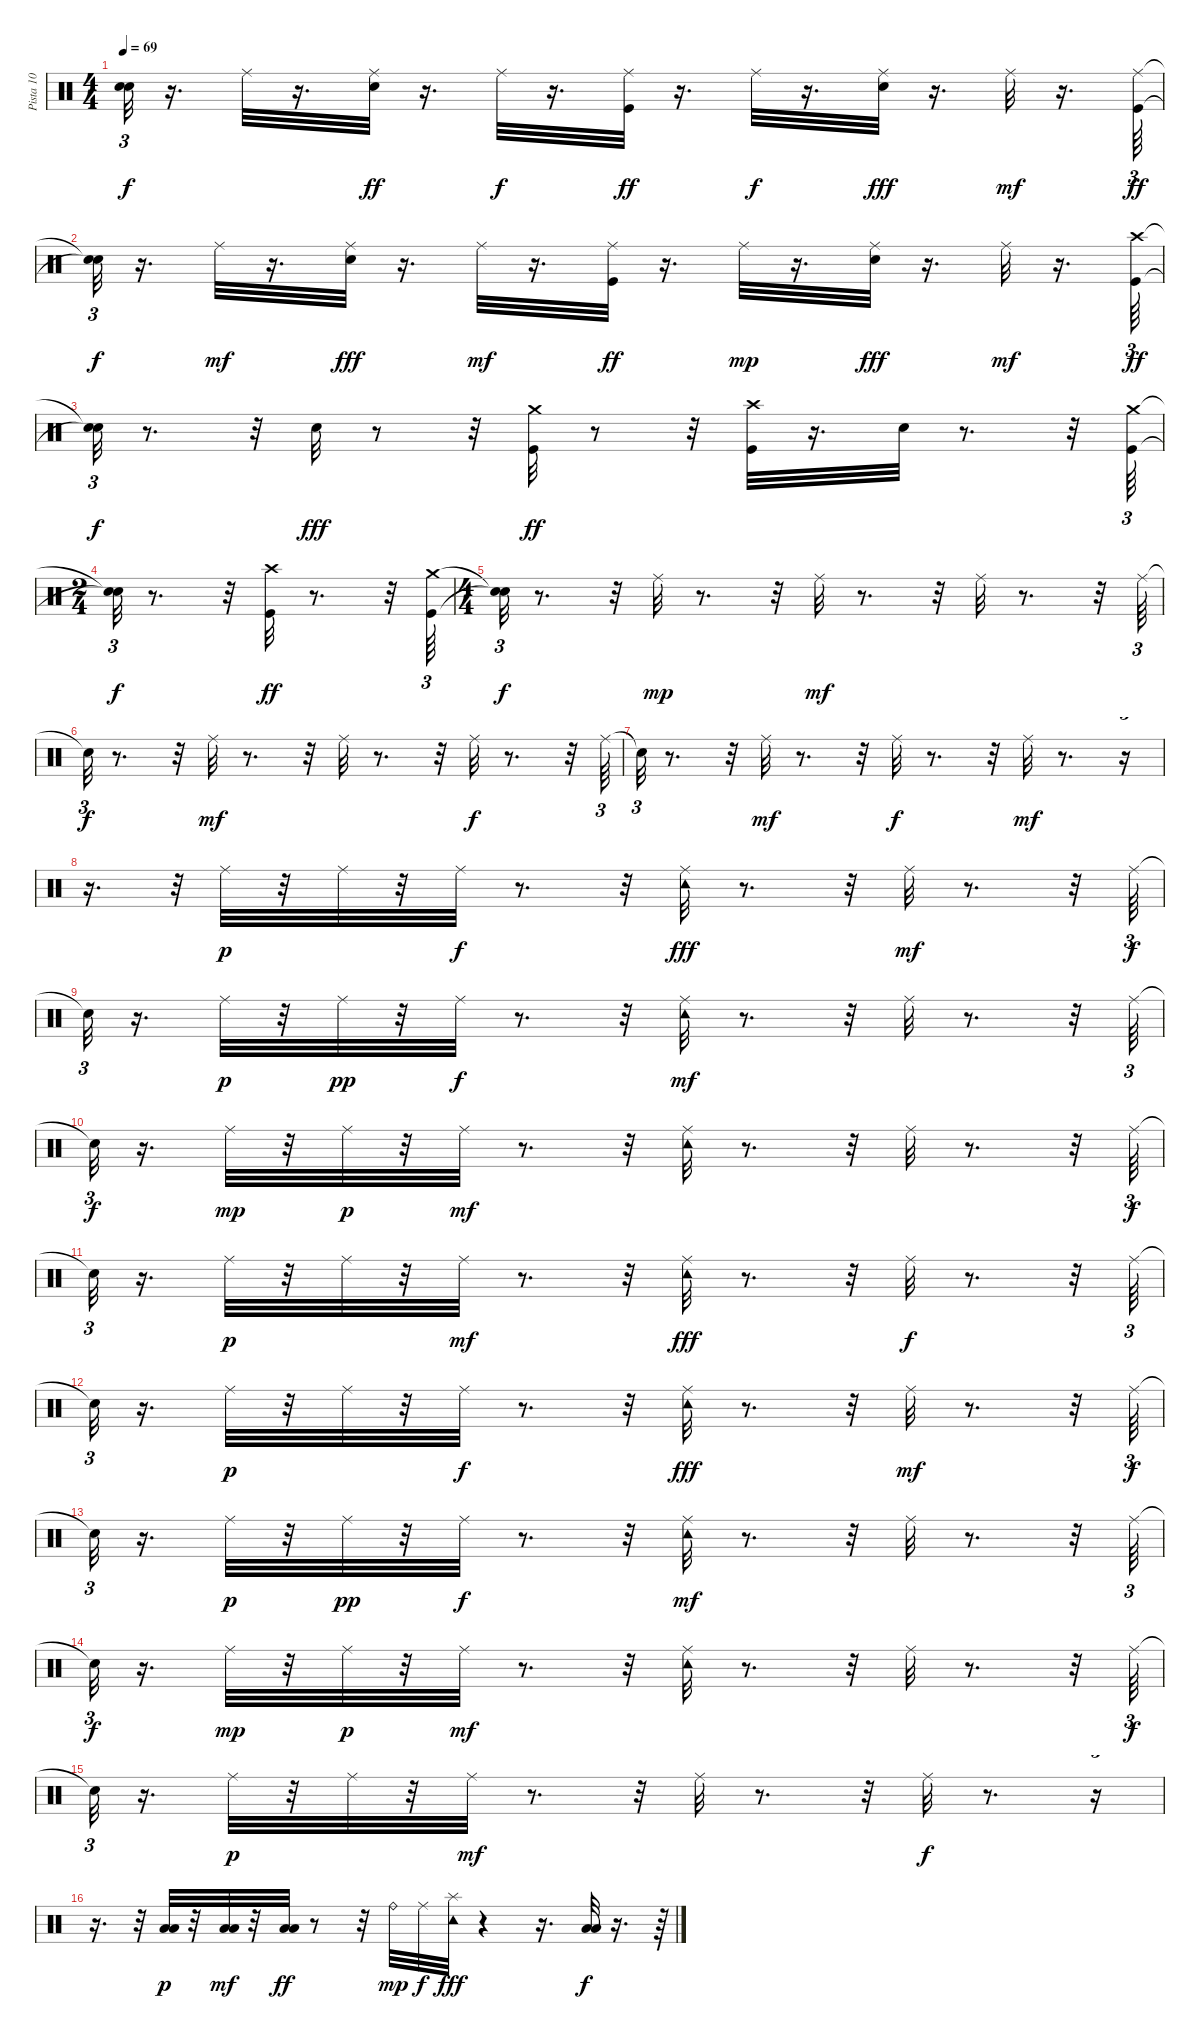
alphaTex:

\track ("Pista 10" "Pista 10") {instrument percussion}
\staff {score}
\articulation defaults
\ts (4 4)
\tempo 69
\clef neutral
\ks c
("Snare (hit)"{t} "Snare (hit)"{t}).32{tu (3 2) dy f} r.16{d} "Ride (middle)".32 r.16{d} ("Snare (hit) 2" "Ride (middle)").32{dy ff} r.16{d} "Ride (middle)".32{dy f} r.16{d} ("Ride (middle)" "Kick (hit)").32{dy ff} r.16{d} "Ride (middle)".32{dy f} r.16{d} ("Ride (middle)" "Snare (hit) 2").32{dy fff} r.16{d} "Ride (middle)".32{dy mf} r.16{d} ("Ride (middle)" "Kick (hit)").64{tu (3 2) dy ff} |
("Snare (hit)"{t} "Snare (hit)"{t}).32{tu (3 2) dy f} r.16{d} "Ride (middle)".32{dy mf} r.16{d} ("Ride (middle)" "Snare (hit) 2").32{dy fff} r.16{d} "Ride (middle)".32{dy mf} r.16{d} ("Ride (middle)" "Kick (hit)").32{dy ff} r.16{d} "Ride (middle)".32{dy mp} r.16{d} ("Ride (middle)" "Snare (hit) 2").32{dy fff} r.16{d} "Ride (middle)".32{dy mf} r.16{d} ("Kick (hit)" "Crash high (hit)").64{tu (3 2) dy ff} |
("Snare (hit)"{t} "Snare (hit)"{t}).32{tu (3 2) dy f} r.8{d} r.32 "Snare (hit) 2".32{dy fff} r.8 r.32 ("Crash medium (hit)" "Kick (hit)").32{dy ff} r.8 r.32 ("Crash high (hit)" "Kick (hit)").32 r.16{d} "Snare (hit) 2".32 r.8{d} r.32 ("Crash medium (hit)" "Kick (hit)").64{tu (3 2)} |
\ts (2 4)
("Snare (hit)"{t} "Snare (hit)"{t}).32{tu (3 2) dy f} r.8{d} r.32 ("Crash high (hit)" "Kick (hit)").32{dy ff} r.8{d} r.32 ("Crash medium (hit)" "Kick (hit)").64{tu (3 2)} |
\ts (4 4)
("Snare (hit)"{t} "Snare (hit)"{t}).32{tu (3 2) dy f} r.8{d} r.32 "Ride (middle)".32{dy mp} r.8{d} r.32 "Ride (middle)".32{dy mf} r.8{d} r.32 "Ride (middle)".32 r.8{d} r.32 "Ride (middle)".64{tu (3 2)} |
"Snare (hit)"{t}.32{tu (3 2) dy f} r.8{d} r.32 "Ride (middle)".32{dy mf} r.8{d} r.32 "Ride (middle)".32 r.8{d} r.32 "Ride (middle)".32{dy f} r.8{d} r.32 "Ride (middle)".64{tu (3 2)} |
"Snare (hit)"{t}.32{tu (3 2)} r.8{d} r.32 "Ride (middle)".32{dy mf} r.8{d} r.32 "Ride (middle)".32{dy f} r.8{d} r.32 "Ride (middle)".32{dy mf} r.8{d} r.16{tu (3 2)} |
r.16{d} r.32{tu (3 2)} "Ride (middle)".32{dy p} r.32 "Ride (middle)".32 r.32 "Ride (middle)".32{dy f} r.8{d} r.32 ("Ride (middle)" "Tambourine (hit)").32{dy fff} r.8{d} r.32 "Ride (middle)".32{dy mf} r.8{d} r.32 "Ride (middle)".64{tu (3 2) dy f} |
"Snare (hit)"{t}.32{tu (3 2)} r.16{d} "Ride (middle)".32{dy p} r.32 "Ride (middle)".32{dy pp} r.32 "Ride (middle)".32{dy f} r.8{d} r.32 ("Tambourine (hit)" "Ride (middle)").32{dy mf} r.8{d} r.32 "Ride (middle)".32 r.8{d} r.32 "Ride (middle)".64{tu (3 2)} |
"Snare (hit)"{t}.32{tu (3 2) dy f} r.16{d} "Ride (middle)".32{dy mp} r.32 "Ride (middle)".32{dy p} r.32 "Ride (middle)".32{dy mf} r.8{d} r.32 ("Tambourine (hit)" "Ride (middle)").32 r.8{d} r.32 "Ride (middle)".32 r.8{d} r.32 "Ride (middle)".64{tu (3 2) dy f} |
"Snare (hit)"{t}.32{tu (3 2)} r.16{d} "Ride (middle)".32{dy p} r.32 "Ride (middle)".32 r.32 "Ride (middle)".32{dy mf} r.8{d} r.32 ("Ride (middle)" "Tambourine (hit)").32{dy fff} r.8{d} r.32 "Ride (middle)".32{dy f} r.8{d} r.32 "Ride (middle)".64{tu (3 2)} |
"Snare (hit)"{t}.32{tu (3 2)} r.16{d} "Ride (middle)".32{dy p} r.32 "Ride (middle)".32 r.32 "Ride (middle)".32{dy f} r.8{d} r.32 ("Ride (middle)" "Tambourine (hit)").32{dy fff} r.8{d} r.32 "Ride (middle)".32{dy mf} r.8{d} r.32 "Ride (middle)".64{tu (3 2) dy f} |
"Snare (hit)"{t}.32{tu (3 2)} r.16{d} "Ride (middle)".32{dy p} r.32 "Ride (middle)".32{dy pp} r.32 "Ride (middle)".32{dy f} r.8{d} r.32 ("Tambourine (hit)" "Ride (middle)").32{dy mf} r.8{d} r.32 "Ride (middle)".32 r.8{d} r.32 "Ride (middle)".64{tu (3 2)} |
"Snare (hit)"{t}.32{tu (3 2) dy f} r.16{d} "Ride (middle)".32{dy mp} r.32 "Ride (middle)".32{dy p} r.32 "Ride (middle)".32{dy mf} r.8{d} r.32 ("Tambourine (hit)" "Ride (middle)").32 r.8{d} r.32 "Ride (middle)".32 r.8{d} r.32 "Ride (middle)".64{tu (3 2) dy f} |
"Snare (hit)"{t}.32{tu (3 2)} r.16{d} "Ride (middle)".32{dy p} r.32 "Ride (middle)".32 r.32 "Ride (middle)".32{dy mf} r.8{d} r.32 "Ride (middle)".32 r.8{d} r.32 "Ride (middle)".32{dy f} r.8{d} r.16{tu (3 2)} |
r.16{d} r.32{tu (3 2)} ("Low Floor Tom (hit)" "Low Tom (hit)").32{dy p} r.32 ("Low Floor Tom (hit)" "Low Tom (hit)").32{dy mf} r.32 ("Low Tom (hit)" "Low Floor Tom (hit)").32{dy ff} r.8 r.32 "Ride (bell)".32{dy mp} "Ride (middle)".32{dy f} ("Splash (hit)" "Tambourine (hit)").32{dy fff} r.4 r.16{d} ("Low Tom (hit)" "Low Floor Tom (hit)").32{dy f} r.16{d} r.64{tu (3 2)}
